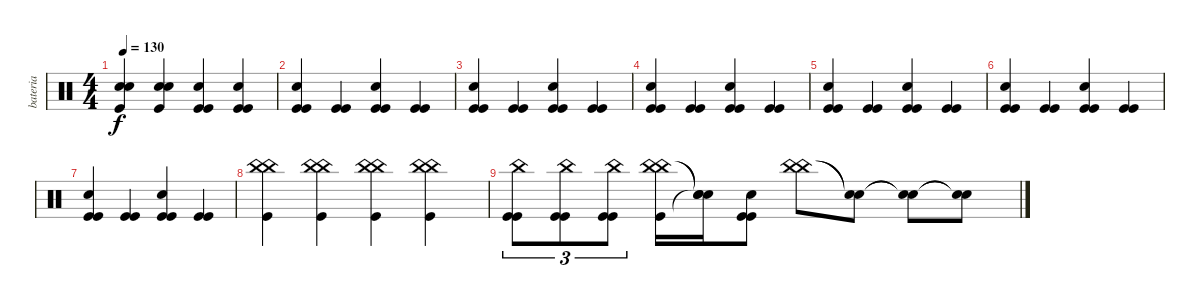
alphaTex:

\track ("bateria" "bateria") {instrument percussion}
\staff {score}
\articulation defaults
\ts (4 4)
\tempo 130
\clef neutral
\ks c
("Kick (hit)" "Snare (hit) 2" "Snare (hit) 2").4{dy f} ("Kick (hit)" "Snare (hit) 2" "Snare (hit) 2").4 ("Kick (hit)" "Snare (hit) 2" "Kick (hit)").4 ("Kick (hit)" "Snare (hit) 2" "Kick (hit)").4 |
("Kick (hit)" "Snare (hit) 2" "Kick (hit)").4 ("Kick (hit)" "Kick (hit)").4 ("Kick (hit)" "Snare (hit) 2" "Kick (hit)").4 ("Kick (hit)" "Kick (hit)").4 |
("Kick (hit)" "Snare (hit) 2" "Kick (hit)").4 ("Kick (hit)" "Kick (hit)").4 ("Kick (hit)" "Snare (hit) 2" "Kick (hit)").4 ("Kick (hit)" "Kick (hit)").4 |
("Kick (hit)" "Snare (hit) 2" "Kick (hit)").4 ("Kick (hit)" "Kick (hit)").4 ("Kick (hit)" "Snare (hit) 2" "Kick (hit)").4 ("Kick (hit)" "Kick (hit)").4 |
("Kick (hit)" "Snare (hit) 2" "Kick (hit)").4 ("Kick (hit)" "Kick (hit)").4 ("Kick (hit)" "Snare (hit) 2" "Kick (hit)").4 ("Kick (hit)" "Kick (hit)").4 |
("Kick (hit)" "Snare (hit) 2" "Kick (hit)").4 ("Kick (hit)" "Kick (hit)").4 ("Kick (hit)" "Snare (hit) 2" "Kick (hit)").4 ("Kick (hit)" "Kick (hit)").4 |
("Kick (hit)" "Snare (hit) 2" "Kick (hit)").4 ("Kick (hit)" "Kick (hit)").4 ("Kick (hit)" "Snare (hit) 2" "Kick (hit)").4 ("Kick (hit)" "Kick (hit)").4 |
("China (hit)" "Kick (hit)" "China (hit)").4 ("China (hit)" "Kick (hit)" "China (hit)").4 ("China (hit)" "Kick (hit)" "China (hit)").4 ("China (hit)" "Kick (hit)" "China (hit)").4 |
("China (hit)" "Kick (hit)" "Kick (hit)").8{tu (3 2)} ("China (hit)" "Kick (hit)" "Kick (hit)").8{tu (3 2)} ("China (hit)" "Kick (hit)" "Kick (hit)").8{tu (3 2)} ("China (hit)" "Kick (hit)" "China (hit)").16 ("Snare (hit)"{t} "Snare (hit)"{t} "Snare (hit)"{t}).16 ("Kick (hit)" "Kick (hit)" "Snare (hit) 2").8 ("China (hit)" "China (hit)").8 ("Snare (hit)"{t} "Snare (hit)"{t}).8 ("Snare (hit)"{t} "Snare (hit)"{t}).8 ("Snare (hit)"{t} "Snare (hit)"{t}).8
